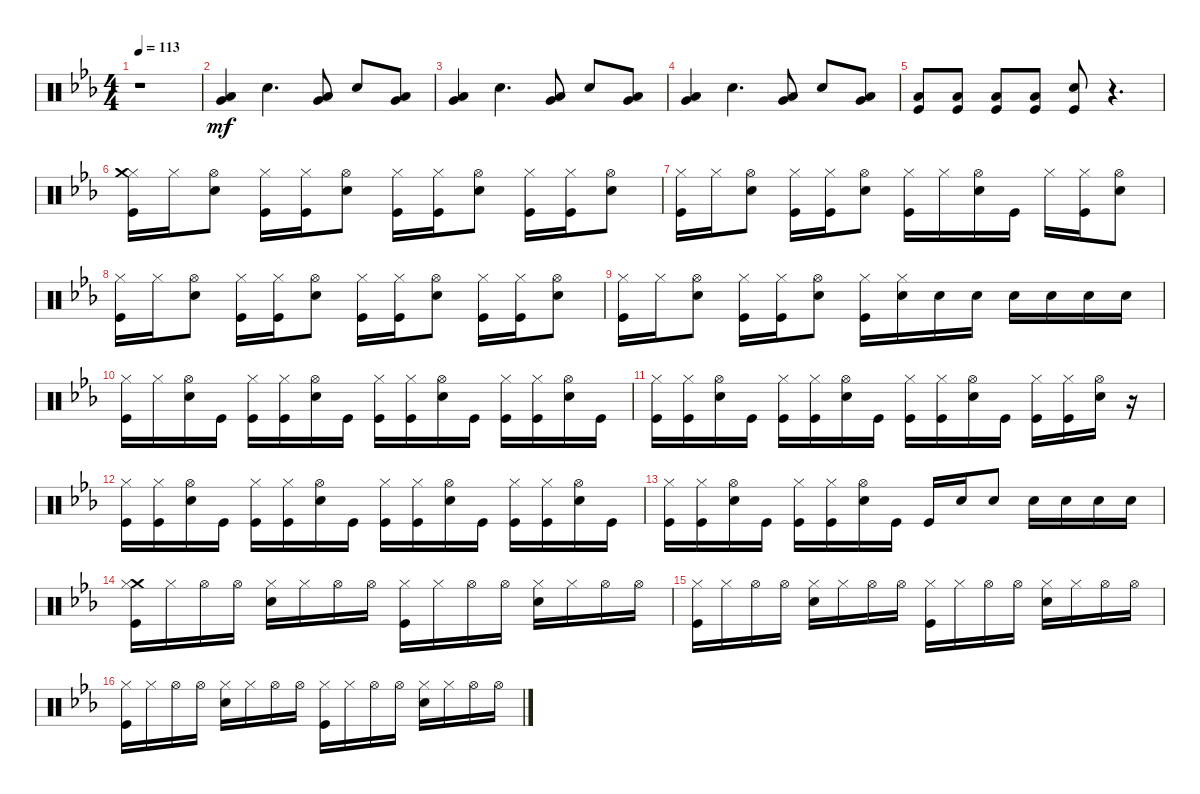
\track "" {instrument percussion}
\staff {score}
\articulation defaults
\ts (4 4)
\tempo 113
\clef neutral
\ks eb
r.1{dy mf} |
("Low Floor Tom (hit)" "Very Low Tom (hit)").4 "Snare (hit) 2".4{d} ("Low Floor Tom (hit)" "Very Low Tom (hit)").8 "Snare (hit) 2".8 ("Low Floor Tom (hit)" "Very Low Tom (hit)").8 |
("Very Low Tom (hit)" "Low Floor Tom (hit)").4 "Snare (hit) 2".4{d} ("Very Low Tom (hit)" "Low Floor Tom (hit)").8 "Snare (hit) 2".8 ("Very Low Tom (hit)" "Low Floor Tom (hit)").8 |
("Very Low Tom (hit)" "Low Floor Tom (hit)").4 "Snare (hit) 2".4{d} ("Very Low Tom (hit)" "Low Floor Tom (hit)").8 "Snare (hit) 2".8 ("Very Low Tom (hit)" "Low Floor Tom (hit)").8 |
("Kick (hit)" "Low Floor Tom (hit)").8 ("Kick (hit)" "Low Floor Tom (hit)").8 ("Kick (hit)" "Low Floor Tom (hit)").8 ("Kick (hit)" "Low Floor Tom (hit)").8 ("Snare (hit) 2" "Kick (hit)").8 r.4{d} |
("Hi-Hat (closed)" "Kick (hit)" "Crash medium (hit)").16 "Hi-Hat (closed)".16 ("Hi-Hat (open)" "Snare (hit) 2").8 ("Hi-Hat (closed)" "Kick (hit)").16 ("Hi-Hat (closed)" "Kick (hit)").16 ("Hi-Hat (open)" "Snare (hit) 2").8 ("Hi-Hat (closed)" "Kick (hit)").16 ("Hi-Hat (closed)" "Kick (hit)").16 ("Hi-Hat (open)" "Snare (hit) 2").8 ("Hi-Hat (closed)" "Kick (hit)").16 ("Hi-Hat (closed)" "Kick (hit)").16 ("Hi-Hat (open)" "Snare (hit) 2").8 |
("Hi-Hat (closed)" "Kick (hit)").16 "Hi-Hat (closed)".16 ("Hi-Hat (open)" "Snare (hit) 2").8 ("Hi-Hat (closed)" "Kick (hit)").16 ("Hi-Hat (closed)" "Kick (hit)").16 ("Hi-Hat (open)" "Snare (hit) 2").8 ("Hi-Hat (closed)" "Kick (hit)").16 "Hi-Hat (closed)".16 ("Hi-Hat (open)" "Snare (hit) 2").16 "Kick (hit)".16 "Hi-Hat (closed)".16 ("Hi-Hat (closed)" "Kick (hit)").16 ("Snare (hit) 2" "Hi-Hat (open)").8 |
("Hi-Hat (closed)" "Kick (hit)").16 "Hi-Hat (closed)".16 ("Hi-Hat (open)" "Snare (hit) 2").8 ("Hi-Hat (closed)" "Kick (hit)").16 ("Hi-Hat (closed)" "Kick (hit)").16 ("Hi-Hat (open)" "Snare (hit) 2").8 ("Hi-Hat (closed)" "Kick (hit)").16 ("Hi-Hat (closed)" "Kick (hit)").16 ("Hi-Hat (open)" "Snare (hit) 2").8 ("Hi-Hat (closed)" "Kick (hit)").16 ("Hi-Hat (closed)" "Kick (hit)").16 ("Hi-Hat (open)" "Snare (hit) 2").8 |
("Hi-Hat (closed)" "Kick (hit)").16 "Hi-Hat (closed)".16 ("Hi-Hat (open)" "Snare (hit) 2").8 ("Hi-Hat (closed)" "Kick (hit)").16 ("Hi-Hat (closed)" "Kick (hit)").16 ("Hi-Hat (open)" "Snare (hit) 2").8 ("Hi-Hat (closed)" "Kick (hit)").16 ("Hi-Hat (closed)" "Snare (hit) 2").16 "Snare (hit) 2".16 "Snare (hit) 2".16 "Snare (hit) 2".16 "Snare (hit) 2".16 "Snare (hit) 2".16 "Snare (hit) 2".16 |
("Hi-Hat (closed)" "Kick (hit)").16 "Hi-Hat (closed)".16 ("Hi-Hat (open)" "Snare (hit) 2").16 "Kick (hit)".16 ("Kick (hit)" "Hi-Hat (closed)").16 ("Kick (hit)" "Hi-Hat (closed)").16 ("Snare (hit) 2" "Hi-Hat (open)").16 "Kick (hit)".16 ("Kick (hit)" "Hi-Hat (closed)").16 ("Kick (hit)" "Hi-Hat (closed)").16 ("Snare (hit) 2" "Hi-Hat (open)").16 "Kick (hit)".16 ("Kick (hit)" "Hi-Hat (closed)").16 ("Kick (hit)" "Hi-Hat (closed)").16 ("Snare (hit) 2" "Hi-Hat (open)").16 "Kick (hit)".16 |
("Kick (hit)" "Hi-Hat (closed)").16 ("Kick (hit)" "Hi-Hat (closed)").16 ("Snare (hit) 2" "Hi-Hat (open)").16 "Kick (hit)".16 ("Kick (hit)" "Hi-Hat (closed)").16 ("Kick (hit)" "Hi-Hat (closed)").16 ("Snare (hit) 2" "Hi-Hat (open)").16 "Kick (hit)".16 ("Kick (hit)" "Hi-Hat (closed)").16 ("Kick (hit)" "Hi-Hat (closed)").16 ("Snare (hit) 2" "Hi-Hat (open)").16 "Kick (hit)".16 ("Kick (hit)" "Hi-Hat (closed)").16 ("Kick (hit)" "Hi-Hat (closed)").16 ("Snare (hit) 2" "Hi-Hat (open)").16 r.16 |
("Kick (hit)" "Hi-Hat (closed)").16 ("Kick (hit)" "Hi-Hat (closed)").16 ("Snare (hit) 2" "Hi-Hat (open)").16 "Kick (hit)".16 ("Hi-Hat (closed)" "Kick (hit)").16 ("Hi-Hat (closed)" "Kick (hit)").16 ("Hi-Hat (open)" "Snare (hit) 2").16 "Kick (hit)".16 ("Kick (hit)" "Hi-Hat (closed)").16 ("Hi-Hat (closed)" "Kick (hit)").16 ("Hi-Hat (open)" "Snare (hit) 2").16 "Kick (hit)".16 ("Hi-Hat (closed)" "Kick (hit)").16 ("Kick (hit)" "Hi-Hat (closed)").16 ("Snare (hit) 2" "Hi-Hat (open)").16 "Kick (hit)".16 |
("Kick (hit)" "Hi-Hat (closed)").16 ("Kick (hit)" "Hi-Hat (closed)").16 ("Snare (hit) 2" "Hi-Hat (open)").16 "Kick (hit)".16 ("Kick (hit)" "Hi-Hat (closed)").16 ("Kick (hit)" "Hi-Hat (closed)").16 ("Snare (hit) 2" "Hi-Hat (open)").16 "Kick (hit)".16 "Kick (hit)".16 "Snare (hit) 2".16 "Snare (hit) 2".8 "Snare (hit) 2".16 "Snare (hit) 2".16 "Snare (hit) 2".16 "Snare (hit) 2".16 |
("Crash medium (hit)" "Hi-Hat (closed)" "Kick (hit)").16 "Hi-Hat (closed)".16 "Hi-Hat (open)".16 "Hi-Hat (open)".16 ("Hi-Hat (closed)" "Snare (hit) 2").16 "Hi-Hat (closed)".16 "Hi-Hat (open)".16 "Hi-Hat (open)".16 ("Hi-Hat (closed)" "Kick (hit)").16 "Hi-Hat (closed)".16 "Hi-Hat (open)".16 "Hi-Hat (open)".16 ("Hi-Hat (closed)" "Snare (hit) 2").16 "Hi-Hat (closed)".16 "Hi-Hat (open)".16 "Hi-Hat (open)".16 |
("Hi-Hat (closed)" "Kick (hit)").16 "Hi-Hat (closed)".16 "Hi-Hat (open)".16 "Hi-Hat (open)".16 ("Hi-Hat (closed)" "Snare (hit) 2").16 "Hi-Hat (closed)".16 "Hi-Hat (open)".16 "Hi-Hat (open)".16 ("Hi-Hat (closed)" "Kick (hit)").16 "Hi-Hat (closed)".16 "Hi-Hat (open)".16 "Hi-Hat (open)".16 ("Hi-Hat (closed)" "Snare (hit) 2").16 "Hi-Hat (closed)".16 "Hi-Hat (open)".16 "Hi-Hat (open)".16 |
("Hi-Hat (closed)" "Kick (hit)").16 "Hi-Hat (closed)".16 "Hi-Hat (open)".16 "Hi-Hat (open)".16 ("Hi-Hat (closed)" "Snare (hit) 2").16 "Hi-Hat (closed)".16 "Hi-Hat (open)".16 "Hi-Hat (open)".16 ("Hi-Hat (closed)" "Kick (hit)").16 "Hi-Hat (closed)".16 "Hi-Hat (open)".16 "Hi-Hat (open)".16 ("Hi-Hat (closed)" "Snare (hit) 2").16 "Hi-Hat (closed)".16 "Hi-Hat (open)".16 "Hi-Hat (open)".16
